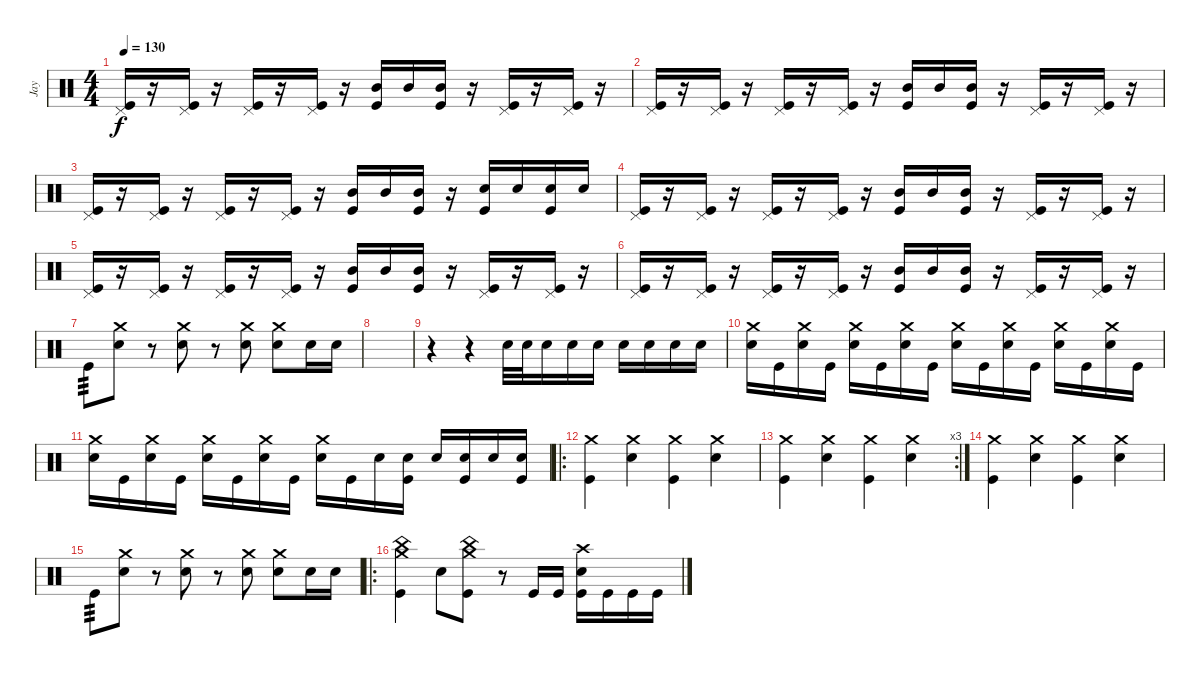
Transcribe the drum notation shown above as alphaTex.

\track ("Jay" "Jay") {instrument percussion}
\staff {score}
\articulation defaults
\ts (4 4)
\tempo 130
\clef neutral
\ks c
("Pedal Hi-Hat (hit)" "Kick (hit)").16{dy f} r.16 ("Pedal Hi-Hat (hit)" "Kick (hit)").16 r.16 ("Pedal Hi-Hat (hit)" "Kick (hit)").16 r.16 ("Pedal Hi-Hat (hit)" "Kick (hit)").16 r.16 ("Mid Tom (hit)" "Kick (hit)").16 "Mid Tom (hit)".16 ("Mid Tom (hit)" "Kick (hit)").16 r.16 ("Pedal Hi-Hat (hit)" "Kick (hit)").16 r.16 ("Pedal Hi-Hat (hit)" "Kick (hit)").16 r.16 |
("Pedal Hi-Hat (hit)" "Kick (hit)").16 r.16 ("Pedal Hi-Hat (hit)" "Kick (hit)").16 r.16 ("Pedal Hi-Hat (hit)" "Kick (hit)").16 r.16 ("Pedal Hi-Hat (hit)" "Kick (hit)").16 r.16 ("Mid Tom (hit)" "Kick (hit)").16 "Mid Tom (hit)".16 ("Mid Tom (hit)" "Kick (hit)").16 r.16 ("Pedal Hi-Hat (hit)" "Kick (hit)").16 r.16 ("Pedal Hi-Hat (hit)" "Kick (hit)").16 r.16 |
("Pedal Hi-Hat (hit)" "Kick (hit)").16 r.16 ("Pedal Hi-Hat (hit)" "Kick (hit)").16 r.16 ("Pedal Hi-Hat (hit)" "Kick (hit)").16 r.16 ("Pedal Hi-Hat (hit)" "Kick (hit)").16 r.16 ("Mid Tom (hit)" "Kick (hit)").16 "Mid Tom (hit)".16 ("Mid Tom (hit)" "Kick (hit)").16 r.16 ("Snare (hit) 2" "Kick (hit)").16 "Snare (hit) 2".16 ("Snare (hit) 2" "Kick (hit)").16 "Snare (hit) 2".16 |
("Pedal Hi-Hat (hit)" "Kick (hit)").16 r.16 ("Pedal Hi-Hat (hit)" "Kick (hit)").16 r.16 ("Pedal Hi-Hat (hit)" "Kick (hit)").16 r.16 ("Pedal Hi-Hat (hit)" "Kick (hit)").16 r.16 ("Mid Tom (hit)" "Kick (hit)").16 "Mid Tom (hit)".16 ("Mid Tom (hit)" "Kick (hit)").16 r.16 ("Pedal Hi-Hat (hit)" "Kick (hit)").16 r.16 ("Pedal Hi-Hat (hit)" "Kick (hit)").16 r.16 |
("Pedal Hi-Hat (hit)" "Kick (hit)").16 r.16 ("Pedal Hi-Hat (hit)" "Kick (hit)").16 r.16 ("Pedal Hi-Hat (hit)" "Kick (hit)").16 r.16 ("Pedal Hi-Hat (hit)" "Kick (hit)").16 r.16 ("Mid Tom (hit)" "Kick (hit)").16 "Mid Tom (hit)".16 ("Mid Tom (hit)" "Kick (hit)").16 r.16 ("Pedal Hi-Hat (hit)" "Kick (hit)").16 r.16 ("Pedal Hi-Hat (hit)" "Kick (hit)").16 r.16 |
("Pedal Hi-Hat (hit)" "Kick (hit)").16 r.16 ("Pedal Hi-Hat (hit)" "Kick (hit)").16 r.16 ("Pedal Hi-Hat (hit)" "Kick (hit)").16 r.16 ("Pedal Hi-Hat (hit)" "Kick (hit)").16 r.16 ("Mid Tom (hit)" "Kick (hit)").16 "Mid Tom (hit)".16 ("Mid Tom (hit)" "Kick (hit)").16 r.16 ("Pedal Hi-Hat (hit)" "Kick (hit)").16 r.16 ("Pedal Hi-Hat (hit)" "Kick (hit)").16 r.16 |
"Kick (hit)".8{tp 3} ("Crash medium (hit)" "Snare (hit) 2").8 r.8 ("Crash medium (hit)" "Snare (hit) 2").8 r.8 ("Crash medium (hit)" "Snare (hit) 2").8 ("Crash medium (hit)" "Snare (hit) 2").8 "Snare (hit) 2".16 "Snare (hit) 2".16 |
|
r.4 r.4 "Snare (hit) 2".32 "Snare (hit) 2".32 "Snare (hit) 2".16 "Snare (hit) 2".16 "Snare (hit) 2".16 "Snare (hit) 2".16 "Snare (hit) 2".16 "Snare (hit) 2".16 "Snare (hit) 2".16 |
("Crash medium (hit)" "Snare (hit) 2").16 "Kick (hit)".16 ("Crash medium (hit)" "Snare (hit) 2").16 "Kick (hit)".16 ("Crash medium (hit)" "Snare (hit) 2").16 "Kick (hit)".16 ("Crash medium (hit)" "Snare (hit) 2").16 "Kick (hit)".16 ("Crash medium (hit)" "Snare (hit) 2").16 "Kick (hit)".16 ("Crash medium (hit)" "Snare (hit) 2").16 "Kick (hit)".16 ("Crash medium (hit)" "Snare (hit) 2").16 "Kick (hit)".16 ("Crash medium (hit)" "Snare (hit) 2").16 "Kick (hit)".16 |
("Crash medium (hit)" "Snare (hit) 2").16 "Kick (hit)".16 ("Crash medium (hit)" "Snare (hit) 2").16 "Kick (hit)".16 ("Crash medium (hit)" "Snare (hit) 2").16 "Kick (hit)".16 ("Crash medium (hit)" "Snare (hit) 2").16 "Kick (hit)".16 ("Crash medium (hit)" "Snare (hit) 2").16 "Kick (hit)".16 "Snare (hit) 2".16 ("Snare (hit) 2" "Kick (hit)").16 "Snare (hit) 2".16 ("Snare (hit) 2" "Kick (hit)").16 "Snare (hit) 2".16 ("Snare (hit) 2" "Kick (hit)").16 |
\ro
("Crash medium (hit)" "Kick (hit)").4 ("Crash medium (hit)" "Snare (hit) 2").4 ("Crash medium (hit)" "Kick (hit)").4 ("Crash medium (hit)" "Snare (hit) 2").4 |
\rc 3
("Crash medium (hit)" "Kick (hit)").4 ("Crash medium (hit)" "Snare (hit) 2").4 ("Crash medium (hit)" "Kick (hit)").4 ("Crash medium (hit)" "Snare (hit) 2").4 |
("Crash medium (hit)" "Kick (hit)").4 ("Crash medium (hit)" "Snare (hit) 2").4 ("Crash medium (hit)" "Kick (hit)").4 ("Crash medium (hit)" "Snare (hit) 2").4 |
"Kick (hit)".8{tp 3} ("Crash medium (hit)" "Snare (hit) 2").8 r.8 ("Crash medium (hit)" "Snare (hit) 2").8 r.8 ("Crash medium (hit)" "Snare (hit) 2").8 ("Crash medium (hit)" "Snare (hit) 2").8 "Snare (hit) 2".16 "Snare (hit) 2".16 |
\ro
("Crash medium (hit)" "China (hit)" "Kick (hit)").4 "Snare (hit) 2".8 ("China (hit)" "Crash medium (hit)" "Kick (hit)").8 r.8 "Kick (hit)".16 "Kick (hit)".16 ("Crash high (hit)" "Snare (hit) 2" "Kick (hit)").16 "Kick (hit)".16 "Kick (hit)".16 "Kick (hit)".16
